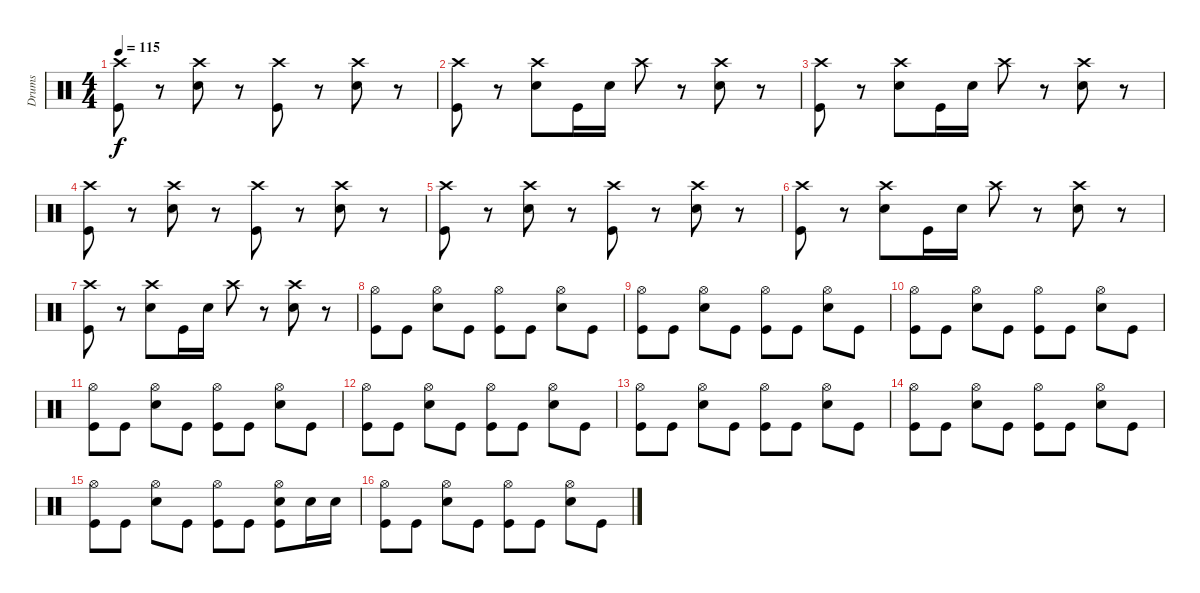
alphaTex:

\track ("Drums" "Drums") {instrument percussion}
\staff {score}
\articulation defaults
\ts (4 4)
\tempo 115
\clef neutral
\ks c
("Crash high (hit)" "Kick (hit)").8{dy f} r.8 ("Crash high (hit)" "Electric Snare (hit)").8 r.8 ("Crash high (hit)" "Kick (hit)").8 r.8 ("Crash high (hit)" "Electric Snare (hit)").8 r.8 |
("Crash high (hit)" "Kick (hit)").8 r.8 ("Crash high (hit)" "Electric Snare (hit)").8 "Kick (hit)".16 "Electric Snare (hit)".16 "Crash high (hit)".8 r.8 ("Crash high (hit)" "Electric Snare (hit)").8 r.8 |
("Crash high (hit)" "Kick (hit)").8 r.8 ("Crash high (hit)" "Electric Snare (hit)").8 "Kick (hit)".16 "Electric Snare (hit)".16 "Crash high (hit)".8 r.8 ("Crash high (hit)" "Electric Snare (hit)").8 r.8 |
("Crash high (hit)" "Kick (hit)").8 r.8 ("Crash high (hit)" "Electric Snare (hit)").8 r.8 ("Crash high (hit)" "Kick (hit)").8 r.8 ("Crash high (hit)" "Electric Snare (hit)").8 r.8 |
("Crash high (hit)" "Kick (hit)").8 r.8 ("Crash high (hit)" "Electric Snare (hit)").8 r.8 ("Crash high (hit)" "Kick (hit)").8 r.8 ("Crash high (hit)" "Electric Snare (hit)").8 r.8 |
("Crash high (hit)" "Kick (hit)").8 r.8 ("Crash high (hit)" "Electric Snare (hit)").8 "Kick (hit)".16 "Electric Snare (hit)".16 "Crash high (hit)".8 r.8 ("Crash high (hit)" "Electric Snare (hit)").8 r.8 |
("Crash high (hit)" "Kick (hit)").8 r.8 ("Crash high (hit)" "Electric Snare (hit)").8 "Kick (hit)".16 "Electric Snare (hit)".16 "Crash high (hit)".8 r.8 ("Crash high (hit)" "Electric Snare (hit)").8 r.8 |
("Hi-Hat (open)" "Kick (hit)").8 "Kick (hit)".8 ("Hi-Hat (open)" "Electric Snare (hit)").8 "Kick (hit)".8 ("Hi-Hat (open)" "Kick (hit)").8 "Kick (hit)".8 ("Hi-Hat (open)" "Electric Snare (hit)").8 "Kick (hit)".8 |
("Hi-Hat (open)" "Kick (hit)").8 "Kick (hit)".8 ("Hi-Hat (open)" "Electric Snare (hit)").8 "Kick (hit)".8 ("Hi-Hat (open)" "Kick (hit)").8 "Kick (hit)".8 ("Hi-Hat (open)" "Electric Snare (hit)").8 "Kick (hit)".8 |
("Hi-Hat (open)" "Kick (hit)").8 "Kick (hit)".8 ("Hi-Hat (open)" "Electric Snare (hit)").8 "Kick (hit)".8 ("Hi-Hat (open)" "Kick (hit)").8 "Kick (hit)".8 ("Hi-Hat (open)" "Electric Snare (hit)").8 "Kick (hit)".8 |
("Hi-Hat (open)" "Kick (hit)").8 "Kick (hit)".8 ("Hi-Hat (open)" "Electric Snare (hit)").8 "Kick (hit)".8 ("Hi-Hat (open)" "Kick (hit)").8 "Kick (hit)".8 ("Hi-Hat (open)" "Electric Snare (hit)").8 "Kick (hit)".8 |
("Hi-Hat (open)" "Kick (hit)").8 "Kick (hit)".8 ("Hi-Hat (open)" "Electric Snare (hit)").8 "Kick (hit)".8 ("Hi-Hat (open)" "Kick (hit)").8 "Kick (hit)".8 ("Hi-Hat (open)" "Electric Snare (hit)").8 "Kick (hit)".8 |
("Hi-Hat (open)" "Kick (hit)").8 "Kick (hit)".8 ("Hi-Hat (open)" "Electric Snare (hit)").8 "Kick (hit)".8 ("Hi-Hat (open)" "Kick (hit)").8 "Kick (hit)".8 ("Hi-Hat (open)" "Electric Snare (hit)").8 "Kick (hit)".8 |
("Hi-Hat (open)" "Kick (hit)").8 "Kick (hit)".8 ("Hi-Hat (open)" "Electric Snare (hit)").8 "Kick (hit)".8 ("Hi-Hat (open)" "Kick (hit)").8 "Kick (hit)".8 ("Hi-Hat (open)" "Electric Snare (hit)").8 "Kick (hit)".8 |
("Hi-Hat (open)" "Kick (hit)").8 "Kick (hit)".8 ("Hi-Hat (open)" "Electric Snare (hit)").8 "Kick (hit)".8 ("Hi-Hat (open)" "Kick (hit)").8 "Kick (hit)".8 ("Hi-Hat (open)" "Electric Snare (hit)" "Kick (hit)").8 "Electric Snare (hit)".16 "Electric Snare (hit)".16 |
("Hi-Hat (open)" "Kick (hit)").8 "Kick (hit)".8 ("Hi-Hat (open)" "Electric Snare (hit)").8 "Kick (hit)".8 ("Hi-Hat (open)" "Kick (hit)").8 "Kick (hit)".8 ("Hi-Hat (open)" "Electric Snare (hit)").8 "Kick (hit)".8
